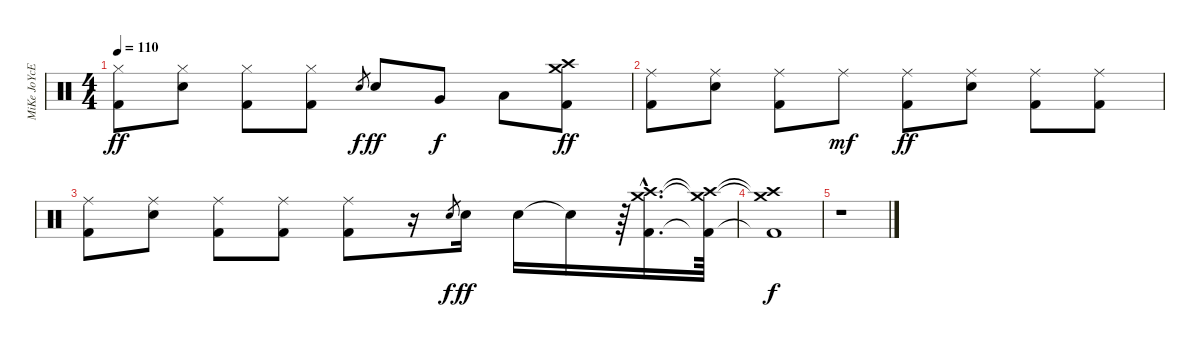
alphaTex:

\track ("MiKe JoYcE" "MiKe JoYcE") {instrument percussion}
\staff {score}
\articulation defaults
\ts (4 4)
\tempo 110
\clef neutral
\ks c
("Hi-Hat (closed)" "Kick (hit) 2").8{dy ff} ("Hi-Hat (closed)" "Electric Snare (hit)").8 ("Hi-Hat (closed)" "Kick (hit) 2").8 ("Hi-Hat (closed)" "Kick (hit) 2").8 "Electric Snare (hit)".8{gr dy f} "Electric Snare (hit)".8{dy ff} "Very Low Tom (hit)".8{dy f} "Low Floor Tom (hit)".8 ("Crash high (hit)" "Crash medium (hit)" "Kick (hit) 2").8{dy ff} |
("Ride (middle)" "Kick (hit) 2").8 ("Ride (middle)" "Electric Snare (hit)").8 ("Ride (middle)" "Kick (hit) 2").8 "Ride (middle)".8{dy mf} ("Ride (middle)" "Kick (hit) 2").8{dy ff} ("Ride (middle)" "Electric Snare (hit)").8 ("Ride (middle)" "Kick (hit) 2").8 ("Ride (middle)" "Kick (hit) 2").8 |
("Ride (middle)" "Kick (hit) 2").8 ("Ride (middle)" "Electric Snare (hit)").8 ("Ride (middle)" "Kick (hit) 2").8 ("Ride (middle)" "Kick (hit) 2").8 ("Ride (middle)" "Kick (hit) 2").8 r.16 "Electric Snare (hit)".8{gr dy f} "Electric Snare (hit)".16{dy ff} "Electric Snare (hit)".16 "Snare (hit)"{t}.16 r.64 ("Crash medium (hit)"{hac} "Crash high (hit)"{hac} "Kick (hit) 2"{hac}).16{d} ("Crash medium (hit)"{t} "Crash high (hit)"{t} "Kick (hit) 2"{t}).64 |
("Crash medium (hit)"{t} "Crash high (hit)"{t} "Kick (hit) 2"{t}).1{dy f} |
r.1
